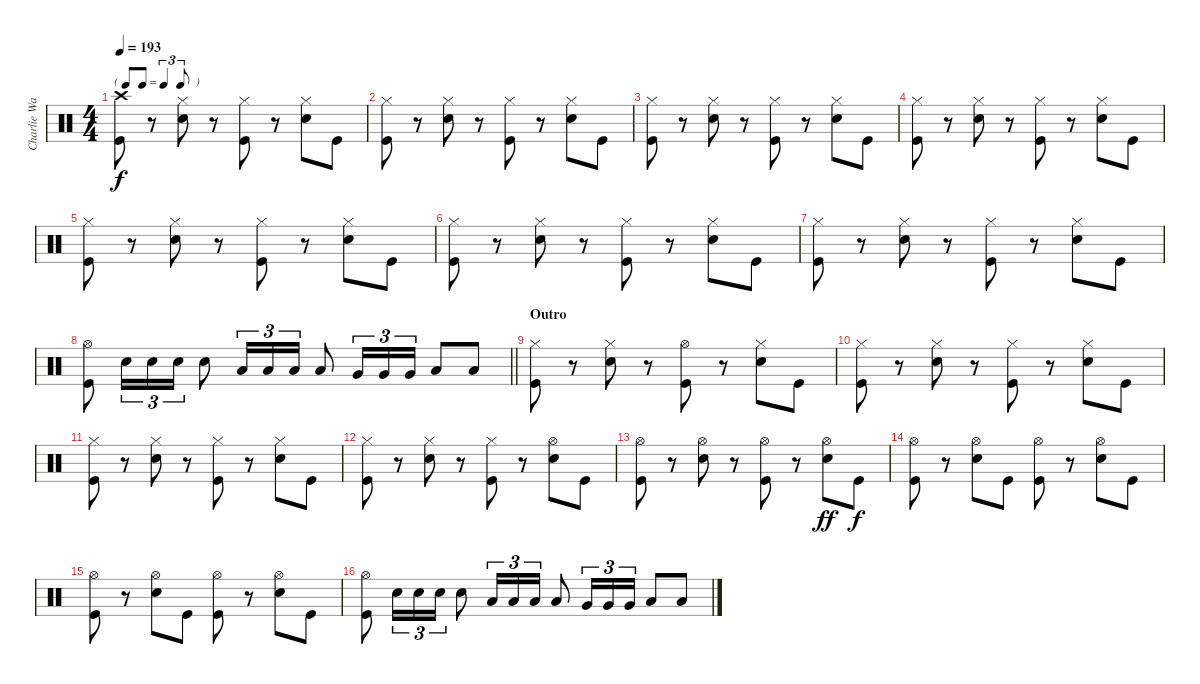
\track ("Charlie Watts" "Charlie Wa") {instrument percussion}
\staff {score}
\articulation defaults
\ts (4 4)
\tf triplet8th
\tempo 193
\clef neutral
\ks c
("Crash high (hit)" "Kick (hit)").8{dy f} r.8 ("Hi-Hat (closed)" "Snare (hit) 2").8 r.8 ("Hi-Hat (closed)" "Kick (hit)").8 r.8 ("Hi-Hat (closed)" "Snare (hit) 2").8 "Kick (hit)".8 |
("Hi-Hat (closed)" "Kick (hit)").8 r.8 ("Hi-Hat (closed)" "Snare (hit) 2").8 r.8 ("Hi-Hat (closed)" "Kick (hit)").8 r.8 ("Hi-Hat (closed)" "Snare (hit) 2").8 "Kick (hit)".8 |
("Hi-Hat (closed)" "Kick (hit)").8 r.8 ("Hi-Hat (closed)" "Snare (hit) 2").8 r.8 ("Hi-Hat (closed)" "Kick (hit)").8 r.8 ("Hi-Hat (closed)" "Snare (hit) 2").8 "Kick (hit)".8 |
("Hi-Hat (closed)" "Kick (hit)").8 r.8 ("Hi-Hat (closed)" "Snare (hit) 2").8 r.8 ("Hi-Hat (closed)" "Kick (hit)").8 r.8 ("Hi-Hat (closed)" "Snare (hit) 2").8 "Kick (hit)".8 |
("Hi-Hat (closed)" "Kick (hit)").8 r.8 ("Hi-Hat (closed)" "Snare (hit) 2").8 r.8 ("Hi-Hat (closed)" "Kick (hit)").8 r.8 ("Hi-Hat (closed)" "Snare (hit) 2").8 "Kick (hit)".8 |
("Hi-Hat (closed)" "Kick (hit)").8 r.8 ("Hi-Hat (closed)" "Snare (hit) 2").8 r.8 ("Hi-Hat (closed)" "Kick (hit)").8 r.8 ("Hi-Hat (closed)" "Snare (hit) 2").8 "Kick (hit)".8 |
("Hi-Hat (closed)" "Kick (hit)").8 r.8 ("Hi-Hat (closed)" "Snare (hit) 2").8 r.8 ("Hi-Hat (closed)" "Kick (hit)").8 r.8 ("Hi-Hat (closed)" "Snare (hit) 2").8 "Kick (hit)".8 |
\barLineRight lightlight
("Hi-Hat (open)" "Kick (hit)").8 "Snare (hit) 2".16{tu (3 2)} "Snare (hit) 2".16{tu (3 2)} "Snare (hit) 2".16{tu (3 2)} "Snare (hit) 2".8 "Low Tom (hit)".16{tu (3 2)} "Low Tom (hit)".16{tu (3 2)} "Low Tom (hit)".16{tu (3 2)} "Low Tom (hit)".8 "Very Low Tom (hit)".16{tu (3 2)} "Very Low Tom (hit)".16{tu (3 2)} "Very Low Tom (hit)".16{tu (3 2)} "Low Floor Tom (hit)".8 "Low Floor Tom (hit)".8 |
\section ("" "Outro")
("Hi-Hat (closed)" "Kick (hit)").8 r.8 ("Hi-Hat (closed)" "Snare (hit) 2").8 r.8 ("Hi-Hat (open)" "Kick (hit)").8 r.8 ("Hi-Hat (closed)" "Snare (hit) 2").8 "Kick (hit)".8 |
("Hi-Hat (closed)" "Kick (hit)").8 r.8 ("Hi-Hat (closed)" "Snare (hit) 2").8 r.8 ("Hi-Hat (closed)" "Kick (hit)").8 r.8 ("Hi-Hat (closed)" "Snare (hit) 2").8 "Kick (hit)".8 |
("Hi-Hat (closed)" "Kick (hit)").8 r.8 ("Hi-Hat (closed)" "Snare (hit) 2").8 r.8 ("Hi-Hat (closed)" "Kick (hit)").8 r.8 ("Hi-Hat (closed)" "Snare (hit) 2").8 "Kick (hit)".8 |
("Hi-Hat (closed)" "Kick (hit)").8 r.8 ("Hi-Hat (closed)" "Snare (hit) 2").8 r.8 ("Hi-Hat (closed)" "Kick (hit)").8 r.8 ("Hi-Hat (open)" "Snare (hit) 2").8 "Kick (hit)".8 |
("Hi-Hat (open)" "Kick (hit)").8 r.8 ("Hi-Hat (open)" "Snare (hit) 2").8 r.8 ("Hi-Hat (open)" "Kick (hit)").8 r.8 ("Hi-Hat (open)" "Snare (hit) 2").8{dy ff} "Kick (hit)".8{dy f} |
("Hi-Hat (open)" "Kick (hit)").8 r.8 ("Hi-Hat (open)" "Snare (hit) 2").8 "Kick (hit)".8 ("Hi-Hat (open)" "Kick (hit)").8 r.8 ("Hi-Hat (open)" "Snare (hit) 2").8 "Kick (hit)".8 |
("Hi-Hat (open)" "Kick (hit)").8 r.8 ("Hi-Hat (open)" "Snare (hit) 2").8 "Kick (hit)".8 ("Hi-Hat (open)" "Kick (hit)").8 r.8 ("Hi-Hat (open)" "Snare (hit) 2").8 "Kick (hit)".8 |
("Hi-Hat (open)" "Kick (hit)").8 "Snare (hit) 2".16{tu (3 2)} "Snare (hit) 2".16{tu (3 2)} "Snare (hit) 2".16{tu (3 2)} "Snare (hit) 2".8 "Low Tom (hit)".16{tu (3 2)} "Low Tom (hit)".16{tu (3 2)} "Low Tom (hit)".16{tu (3 2)} "Low Tom (hit)".8 "Very Low Tom (hit)".16{tu (3 2)} "Very Low Tom (hit)".16{tu (3 2)} "Very Low Tom (hit)".16{tu (3 2)} "Low Floor Tom (hit)".8 "Low Floor Tom (hit)".8
